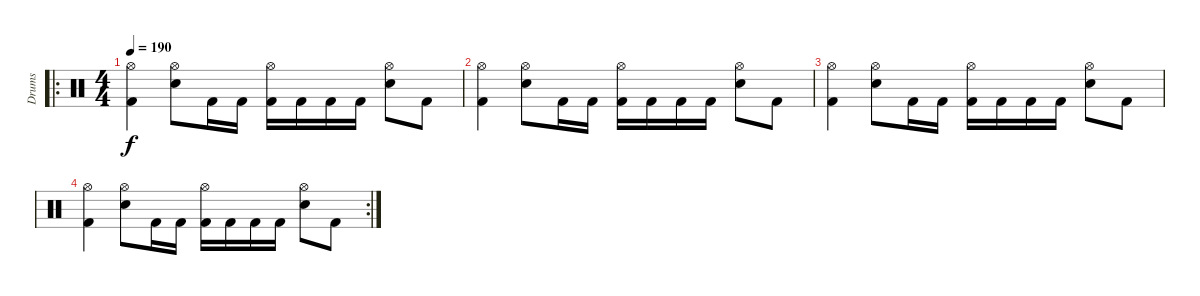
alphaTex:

\track ("Drums" "Drums") {instrument percussion}
\staff {score}
\articulation defaults
\ro
\ts (4 4)
\tempo 190
\clef neutral
\ks c
("Hi-Hat (open)" "Kick (hit) 2").4{dy f} ("Hi-Hat (open)" "Snare (hit) 2").8 "Kick (hit) 2".16 "Kick (hit) 2".16 ("Hi-Hat (open)" "Kick (hit) 2").16 "Kick (hit) 2".16 "Kick (hit) 2".16 "Kick (hit) 2".16 ("Hi-Hat (open)" "Snare (hit) 2").8 "Kick (hit) 2".8 |
("Hi-Hat (open)" "Kick (hit) 2").4 ("Hi-Hat (open)" "Snare (hit) 2").8 "Kick (hit) 2".16 "Kick (hit) 2".16 ("Hi-Hat (open)" "Kick (hit) 2").16 "Kick (hit) 2".16 "Kick (hit) 2".16 "Kick (hit) 2".16 ("Hi-Hat (open)" "Snare (hit) 2").8 "Kick (hit) 2".8 |
("Hi-Hat (open)" "Kick (hit) 2").4 ("Hi-Hat (open)" "Snare (hit) 2").8 "Kick (hit) 2".16 "Kick (hit) 2".16 ("Hi-Hat (open)" "Kick (hit) 2").16 "Kick (hit) 2".16 "Kick (hit) 2".16 "Kick (hit) 2".16 ("Hi-Hat (open)" "Snare (hit) 2").8 "Kick (hit) 2".8 |
\rc 2
("Hi-Hat (open)" "Kick (hit) 2").4 ("Hi-Hat (open)" "Snare (hit) 2").8 "Kick (hit) 2".16 "Kick (hit) 2".16 ("Hi-Hat (open)" "Kick (hit) 2").16 "Kick (hit) 2".16 "Kick (hit) 2".16 "Kick (hit) 2".16 ("Hi-Hat (open)" "Snare (hit) 2").8 "Kick (hit) 2".8
